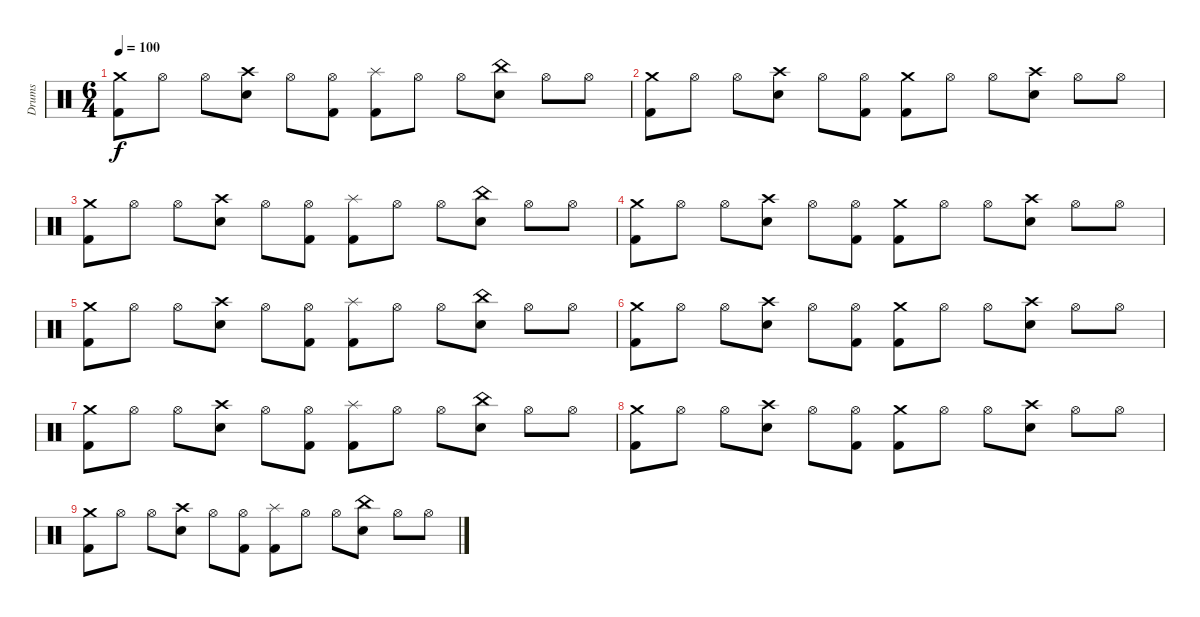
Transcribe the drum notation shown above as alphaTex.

\track ("Drums" "Drums") {instrument percussion}
\staff {score}
\articulation defaults
\ts (6 4)
\tempo 100
\clef neutral
\ks c
("Crash medium (hit)" "Kick (hit) 2").8{dy f} "Hi-Hat (open)".8 "Hi-Hat (open)".8 ("Crash high (hit)" "Electric Snare (hit)").8 "Hi-Hat (open)".8 ("Hi-Hat (open)" "Kick (hit) 2").8 ("Splash (hit)" "Kick (hit) 2").8 "Hi-Hat (open)".8 "Hi-Hat (open)".8 ("China (hit)" "Electric Snare (hit)").8 "Hi-Hat (open)".8 "Hi-Hat (open)".8 |
("Crash medium (hit)" "Kick (hit) 2").8 "Hi-Hat (open)".8 "Hi-Hat (open)".8 ("Crash high (hit)" "Electric Snare (hit)").8 "Hi-Hat (open)".8 ("Hi-Hat (open)" "Kick (hit) 2").8 ("Crash medium (hit)" "Kick (hit) 2").8 "Hi-Hat (open)".8 "Hi-Hat (open)".8 ("Crash high (hit)" "Electric Snare (hit)").8 "Hi-Hat (open)".8 "Hi-Hat (open)".8 |
("Crash medium (hit)" "Kick (hit) 2").8 "Hi-Hat (open)".8 "Hi-Hat (open)".8 ("Crash high (hit)" "Electric Snare (hit)").8 "Hi-Hat (open)".8 ("Hi-Hat (open)" "Kick (hit) 2").8 ("Splash (hit)" "Kick (hit) 2").8 "Hi-Hat (open)".8 "Hi-Hat (open)".8 ("China (hit)" "Electric Snare (hit)").8 "Hi-Hat (open)".8 "Hi-Hat (open)".8 |
("Crash medium (hit)" "Kick (hit) 2").8 "Hi-Hat (open)".8 "Hi-Hat (open)".8 ("Crash high (hit)" "Electric Snare (hit)").8 "Hi-Hat (open)".8 ("Hi-Hat (open)" "Kick (hit) 2").8 ("Crash medium (hit)" "Kick (hit) 2").8 "Hi-Hat (open)".8 "Hi-Hat (open)".8 ("Crash high (hit)" "Electric Snare (hit)").8 "Hi-Hat (open)".8 "Hi-Hat (open)".8 |
("Crash medium (hit)" "Kick (hit) 2").8 "Hi-Hat (open)".8 "Hi-Hat (open)".8 ("Crash high (hit)" "Electric Snare (hit)").8 "Hi-Hat (open)".8 ("Hi-Hat (open)" "Kick (hit) 2").8 ("Splash (hit)" "Kick (hit) 2").8 "Hi-Hat (open)".8 "Hi-Hat (open)".8 ("China (hit)" "Electric Snare (hit)").8 "Hi-Hat (open)".8 "Hi-Hat (open)".8 |
("Crash medium (hit)" "Kick (hit) 2").8 "Hi-Hat (open)".8 "Hi-Hat (open)".8 ("Crash high (hit)" "Electric Snare (hit)").8 "Hi-Hat (open)".8 ("Hi-Hat (open)" "Kick (hit) 2").8 ("Crash medium (hit)" "Kick (hit) 2").8 "Hi-Hat (open)".8 "Hi-Hat (open)".8 ("Crash high (hit)" "Electric Snare (hit)").8 "Hi-Hat (open)".8 "Hi-Hat (open)".8 |
("Crash medium (hit)" "Kick (hit) 2").8 "Hi-Hat (open)".8 "Hi-Hat (open)".8 ("Crash high (hit)" "Electric Snare (hit)").8 "Hi-Hat (open)".8 ("Hi-Hat (open)" "Kick (hit) 2").8 ("Splash (hit)" "Kick (hit) 2").8 "Hi-Hat (open)".8 "Hi-Hat (open)".8 ("China (hit)" "Electric Snare (hit)").8 "Hi-Hat (open)".8 "Hi-Hat (open)".8 |
("Crash medium (hit)" "Kick (hit) 2").8 "Hi-Hat (open)".8 "Hi-Hat (open)".8 ("Crash high (hit)" "Electric Snare (hit)").8 "Hi-Hat (open)".8 ("Hi-Hat (open)" "Kick (hit) 2").8 ("Crash medium (hit)" "Kick (hit) 2").8 "Hi-Hat (open)".8 "Hi-Hat (open)".8 ("Crash high (hit)" "Electric Snare (hit)").8 "Hi-Hat (open)".8 "Hi-Hat (open)".8 |
("Crash medium (hit)" "Kick (hit) 2").8 "Hi-Hat (open)".8 "Hi-Hat (open)".8 ("Crash high (hit)" "Electric Snare (hit)").8 "Hi-Hat (open)".8 ("Hi-Hat (open)" "Kick (hit) 2").8 ("Splash (hit)" "Kick (hit) 2").8 "Hi-Hat (open)".8 "Hi-Hat (open)".8 ("China (hit)" "Electric Snare (hit)").8 "Hi-Hat (open)".8 "Hi-Hat (open)".8
